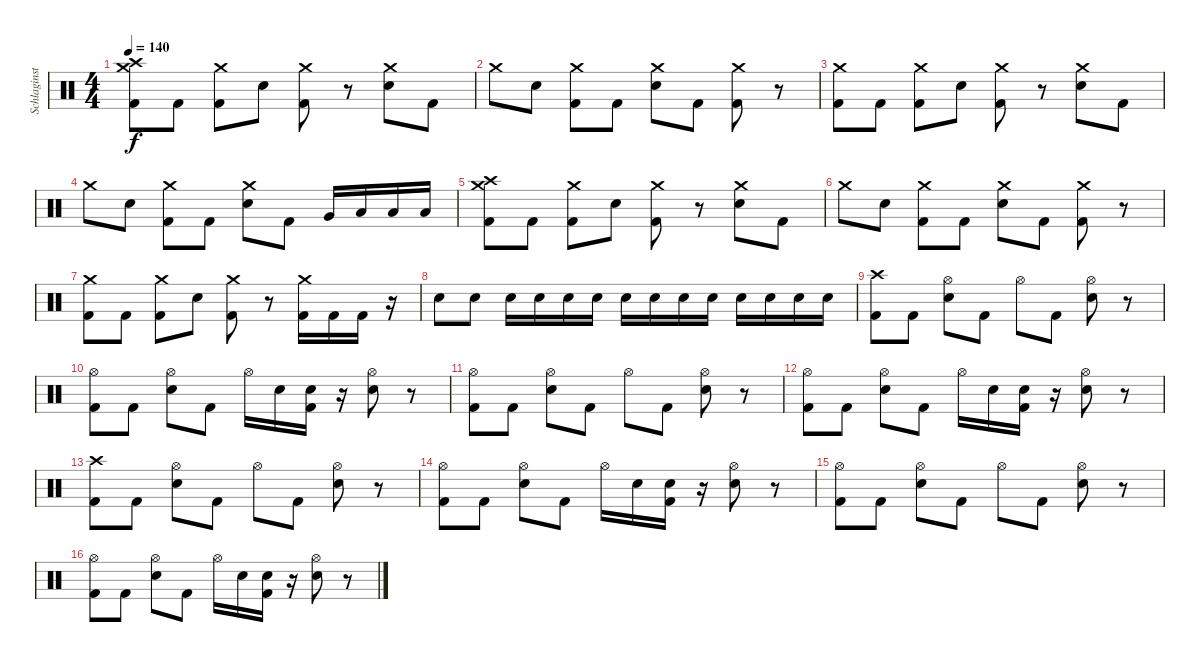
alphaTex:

\track ("Schlaginstrumente - Auswahl" "Schlaginst") {instrument percussion}
\staff {score}
\articulation defaults
\ts (4 4)
\tempo 140
\clef neutral
\ks c
("Crash medium (hit)" "Crash high (hit)" "Kick (hit) 2").8{dy f} "Kick (hit) 2".8 ("Crash medium (hit)" "Kick (hit) 2").8 "Snare (hit) 2".8 ("Crash medium (hit)" "Kick (hit) 2").8 r.8 ("Crash medium (hit)" "Snare (hit) 2").8 "Kick (hit) 2".8 |
"Crash medium (hit)".8 "Snare (hit) 2".8 ("Crash medium (hit)" "Kick (hit) 2").8 "Kick (hit) 2".8 ("Crash medium (hit)" "Snare (hit) 2").8 "Kick (hit) 2".8 ("Crash medium (hit)" "Kick (hit) 2").8 r.8 |
("Crash medium (hit)" "Kick (hit) 2").8 "Kick (hit) 2".8 ("Crash medium (hit)" "Kick (hit) 2").8 "Snare (hit) 2".8 ("Crash medium (hit)" "Kick (hit) 2").8 r.8 ("Crash medium (hit)" "Snare (hit) 2").8 "Kick (hit) 2".8 |
"Crash medium (hit)".8 "Snare (hit) 2".8 ("Crash medium (hit)" "Kick (hit) 2").8 "Kick (hit) 2".8 ("Crash medium (hit)" "Snare (hit) 2").8 "Kick (hit) 2".8 "Very Low Tom (hit)".16 "Low Floor Tom (hit)".16 "Low Floor Tom (hit)".16 "Low Floor Tom (hit)".16 |
("Crash medium (hit)" "Crash high (hit)" "Kick (hit) 2").8 "Kick (hit) 2".8 ("Crash medium (hit)" "Kick (hit) 2").8 "Snare (hit) 2".8 ("Crash medium (hit)" "Kick (hit) 2").8 r.8 ("Crash medium (hit)" "Snare (hit) 2").8 "Kick (hit) 2".8 |
"Crash medium (hit)".8 "Snare (hit) 2".8 ("Crash medium (hit)" "Kick (hit) 2").8 "Kick (hit) 2".8 ("Crash medium (hit)" "Snare (hit) 2").8 "Kick (hit) 2".8 ("Crash medium (hit)" "Kick (hit) 2").8 r.8 |
("Crash medium (hit)" "Kick (hit) 2").8 "Kick (hit) 2".8 ("Crash medium (hit)" "Kick (hit) 2").8 "Snare (hit) 2".8 ("Crash medium (hit)" "Kick (hit) 2").8 r.8 ("Crash medium (hit)" "Kick (hit) 2").16 "Kick (hit) 2".16 "Kick (hit) 2".16 r.16 |
"Snare (hit) 2".8 "Snare (hit) 2".8 "Snare (hit) 2".16 "Snare (hit) 2".16 "Snare (hit) 2".16 "Snare (hit) 2".16 "Snare (hit) 2".16 "Snare (hit) 2".16 "Snare (hit) 2".16 "Snare (hit) 2".16 "Snare (hit) 2".16 "Snare (hit) 2".16 "Snare (hit) 2".16 "Snare (hit) 2".16 |
("Crash high (hit)" "Kick (hit) 2").8 "Kick (hit) 2".8 ("Hi-Hat (open)" "Snare (hit) 2").8 "Kick (hit) 2".8 "Hi-Hat (open)".8 "Kick (hit) 2".8 ("Hi-Hat (open)" "Snare (hit) 2").8 r.8 |
("Hi-Hat (open)" "Kick (hit) 2").8 "Kick (hit) 2".8 ("Hi-Hat (open)" "Snare (hit) 2").8 "Kick (hit) 2".8 "Hi-Hat (open)".16 "Snare (hit) 2".16 ("Snare (hit) 2" "Kick (hit) 2").16 r.16 ("Hi-Hat (open)" "Snare (hit) 2").8 r.8 |
("Hi-Hat (open)" "Kick (hit) 2").8 "Kick (hit) 2".8 ("Hi-Hat (open)" "Snare (hit) 2").8 "Kick (hit) 2".8 "Hi-Hat (open)".8 "Kick (hit) 2".8 ("Hi-Hat (open)" "Snare (hit) 2").8 r.8 |
("Hi-Hat (open)" "Kick (hit) 2").8 "Kick (hit) 2".8 ("Hi-Hat (open)" "Snare (hit) 2").8 "Kick (hit) 2".8 "Hi-Hat (open)".16 "Snare (hit) 2".16 ("Snare (hit) 2" "Kick (hit) 2").16 r.16 ("Hi-Hat (open)" "Snare (hit) 2").8 r.8 |
("Crash high (hit)" "Kick (hit) 2").8 "Kick (hit) 2".8 ("Hi-Hat (open)" "Snare (hit) 2").8 "Kick (hit) 2".8 "Hi-Hat (open)".8 "Kick (hit) 2".8 ("Hi-Hat (open)" "Snare (hit) 2").8 r.8 |
("Hi-Hat (open)" "Kick (hit) 2").8 "Kick (hit) 2".8 ("Hi-Hat (open)" "Snare (hit) 2").8 "Kick (hit) 2".8 "Hi-Hat (open)".16 "Snare (hit) 2".16 ("Snare (hit) 2" "Kick (hit) 2").16 r.16 ("Hi-Hat (open)" "Snare (hit) 2").8 r.8 |
("Hi-Hat (open)" "Kick (hit) 2").8 "Kick (hit) 2".8 ("Hi-Hat (open)" "Snare (hit) 2").8 "Kick (hit) 2".8 "Hi-Hat (open)".8 "Kick (hit) 2".8 ("Hi-Hat (open)" "Snare (hit) 2").8 r.8 |
("Hi-Hat (open)" "Kick (hit) 2").8 "Kick (hit) 2".8 ("Hi-Hat (open)" "Snare (hit) 2").8 "Kick (hit) 2".8 "Hi-Hat (open)".16 "Snare (hit) 2".16 ("Snare (hit) 2" "Kick (hit) 2").16 r.16 ("Hi-Hat (open)" "Snare (hit) 2").8 r.8
